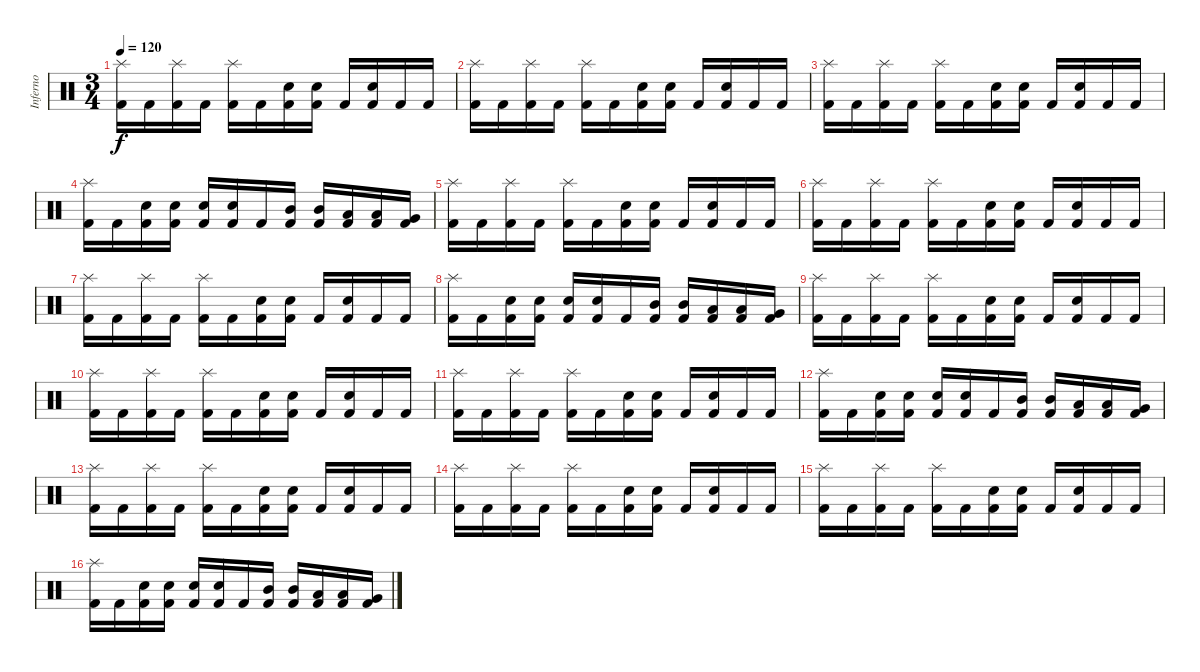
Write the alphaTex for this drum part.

\track ("Inferno" "Inferno") {instrument percussion}
\staff {score}
\articulation defaults
\ts (3 4)
\tempo 120
\clef neutral
\ks c
("Splash (hit)" "Kick (hit) 2").16{dy f} "Kick (hit) 2".16 ("Splash (hit)" "Kick (hit) 2").16 "Kick (hit) 2".16 ("Splash (hit)" "Kick (hit) 2").16 "Kick (hit) 2".16 ("Electric Snare (hit)" "Kick (hit) 2").16 ("Electric Snare (hit)" "Kick (hit) 2").16 "Kick (hit) 2".16 ("Electric Snare (hit)" "Kick (hit) 2").16 "Kick (hit) 2".16 "Kick (hit) 2".16 |
("Splash (hit)" "Kick (hit) 2").16 "Kick (hit) 2".16 ("Splash (hit)" "Kick (hit) 2").16 "Kick (hit) 2".16 ("Splash (hit)" "Kick (hit) 2").16 "Kick (hit) 2".16 ("Electric Snare (hit)" "Kick (hit) 2").16 ("Electric Snare (hit)" "Kick (hit) 2").16 "Kick (hit) 2".16 ("Electric Snare (hit)" "Kick (hit) 2").16 "Kick (hit) 2".16 "Kick (hit) 2".16 |
("Splash (hit)" "Kick (hit) 2").16 "Kick (hit) 2".16 ("Splash (hit)" "Kick (hit) 2").16 "Kick (hit) 2".16 ("Splash (hit)" "Kick (hit) 2").16 "Kick (hit) 2".16 ("Electric Snare (hit)" "Kick (hit) 2").16 ("Electric Snare (hit)" "Kick (hit) 2").16 "Kick (hit) 2".16 ("Electric Snare (hit)" "Kick (hit) 2").16 "Kick (hit) 2".16 "Kick (hit) 2".16 |
("Splash (hit)" "Kick (hit) 2").16 "Kick (hit) 2".16 ("Electric Snare (hit)" "Kick (hit) 2").16 ("Electric Snare (hit)" "Kick (hit) 2").16 ("Electric Snare (hit)" "Kick (hit) 2").16 ("Electric Snare (hit)" "Kick (hit) 2").16 "Kick (hit) 2".16 ("Mid Tom (hit)" "Kick (hit) 2").16 ("Mid Tom (hit)" "Kick (hit) 2").16 ("Low Tom (hit)" "Kick (hit) 2").16 ("Low Tom (hit)" "Kick (hit) 2").16 ("Very Low Tom (hit)" "Kick (hit) 2").16 |
("Splash (hit)" "Kick (hit) 2").16 "Kick (hit) 2".16 ("Splash (hit)" "Kick (hit) 2").16 "Kick (hit) 2".16 ("Splash (hit)" "Kick (hit) 2").16 "Kick (hit) 2".16 ("Electric Snare (hit)" "Kick (hit) 2").16 ("Electric Snare (hit)" "Kick (hit) 2").16 "Kick (hit) 2".16 ("Electric Snare (hit)" "Kick (hit) 2").16 "Kick (hit) 2".16 "Kick (hit) 2".16 |
("Splash (hit)" "Kick (hit) 2").16 "Kick (hit) 2".16 ("Splash (hit)" "Kick (hit) 2").16 "Kick (hit) 2".16 ("Splash (hit)" "Kick (hit) 2").16 "Kick (hit) 2".16 ("Electric Snare (hit)" "Kick (hit) 2").16 ("Electric Snare (hit)" "Kick (hit) 2").16 "Kick (hit) 2".16 ("Electric Snare (hit)" "Kick (hit) 2").16 "Kick (hit) 2".16 "Kick (hit) 2".16 |
("Splash (hit)" "Kick (hit) 2").16 "Kick (hit) 2".16 ("Splash (hit)" "Kick (hit) 2").16 "Kick (hit) 2".16 ("Splash (hit)" "Kick (hit) 2").16 "Kick (hit) 2".16 ("Electric Snare (hit)" "Kick (hit) 2").16 ("Electric Snare (hit)" "Kick (hit) 2").16 "Kick (hit) 2".16 ("Electric Snare (hit)" "Kick (hit) 2").16 "Kick (hit) 2".16 "Kick (hit) 2".16 |
("Splash (hit)" "Kick (hit) 2").16 "Kick (hit) 2".16 ("Electric Snare (hit)" "Kick (hit) 2").16 ("Electric Snare (hit)" "Kick (hit) 2").16 ("Electric Snare (hit)" "Kick (hit) 2").16 ("Electric Snare (hit)" "Kick (hit) 2").16 "Kick (hit) 2".16 ("Mid Tom (hit)" "Kick (hit) 2").16 ("Mid Tom (hit)" "Kick (hit) 2").16 ("Low Tom (hit)" "Kick (hit) 2").16 ("Low Tom (hit)" "Kick (hit) 2").16 ("Very Low Tom (hit)" "Kick (hit) 2").16 |
("Splash (hit)" "Kick (hit) 2").16 "Kick (hit) 2".16 ("Splash (hit)" "Kick (hit) 2").16 "Kick (hit) 2".16 ("Splash (hit)" "Kick (hit) 2").16 "Kick (hit) 2".16 ("Electric Snare (hit)" "Kick (hit) 2").16 ("Electric Snare (hit)" "Kick (hit) 2").16 "Kick (hit) 2".16 ("Electric Snare (hit)" "Kick (hit) 2").16 "Kick (hit) 2".16 "Kick (hit) 2".16 |
("Splash (hit)" "Kick (hit) 2").16 "Kick (hit) 2".16 ("Splash (hit)" "Kick (hit) 2").16 "Kick (hit) 2".16 ("Splash (hit)" "Kick (hit) 2").16 "Kick (hit) 2".16 ("Electric Snare (hit)" "Kick (hit) 2").16 ("Electric Snare (hit)" "Kick (hit) 2").16 "Kick (hit) 2".16 ("Electric Snare (hit)" "Kick (hit) 2").16 "Kick (hit) 2".16 "Kick (hit) 2".16 |
("Splash (hit)" "Kick (hit) 2").16 "Kick (hit) 2".16 ("Splash (hit)" "Kick (hit) 2").16 "Kick (hit) 2".16 ("Splash (hit)" "Kick (hit) 2").16 "Kick (hit) 2".16 ("Electric Snare (hit)" "Kick (hit) 2").16 ("Electric Snare (hit)" "Kick (hit) 2").16 "Kick (hit) 2".16 ("Electric Snare (hit)" "Kick (hit) 2").16 "Kick (hit) 2".16 "Kick (hit) 2".16 |
("Splash (hit)" "Kick (hit) 2").16 "Kick (hit) 2".16 ("Electric Snare (hit)" "Kick (hit) 2").16 ("Electric Snare (hit)" "Kick (hit) 2").16 ("Electric Snare (hit)" "Kick (hit) 2").16 ("Electric Snare (hit)" "Kick (hit) 2").16 "Kick (hit) 2".16 ("Mid Tom (hit)" "Kick (hit) 2").16 ("Mid Tom (hit)" "Kick (hit) 2").16 ("Low Tom (hit)" "Kick (hit) 2").16 ("Low Tom (hit)" "Kick (hit) 2").16 ("Very Low Tom (hit)" "Kick (hit) 2").16 |
("Splash (hit)" "Kick (hit) 2").16 "Kick (hit) 2".16 ("Splash (hit)" "Kick (hit) 2").16 "Kick (hit) 2".16 ("Splash (hit)" "Kick (hit) 2").16 "Kick (hit) 2".16 ("Electric Snare (hit)" "Kick (hit) 2").16 ("Electric Snare (hit)" "Kick (hit) 2").16 "Kick (hit) 2".16 ("Electric Snare (hit)" "Kick (hit) 2").16 "Kick (hit) 2".16 "Kick (hit) 2".16 |
("Splash (hit)" "Kick (hit) 2").16 "Kick (hit) 2".16 ("Splash (hit)" "Kick (hit) 2").16 "Kick (hit) 2".16 ("Splash (hit)" "Kick (hit) 2").16 "Kick (hit) 2".16 ("Electric Snare (hit)" "Kick (hit) 2").16 ("Electric Snare (hit)" "Kick (hit) 2").16 "Kick (hit) 2".16 ("Electric Snare (hit)" "Kick (hit) 2").16 "Kick (hit) 2".16 "Kick (hit) 2".16 |
("Splash (hit)" "Kick (hit) 2").16 "Kick (hit) 2".16 ("Splash (hit)" "Kick (hit) 2").16 "Kick (hit) 2".16 ("Splash (hit)" "Kick (hit) 2").16 "Kick (hit) 2".16 ("Electric Snare (hit)" "Kick (hit) 2").16 ("Electric Snare (hit)" "Kick (hit) 2").16 "Kick (hit) 2".16 ("Electric Snare (hit)" "Kick (hit) 2").16 "Kick (hit) 2".16 "Kick (hit) 2".16 |
("Splash (hit)" "Kick (hit) 2").16 "Kick (hit) 2".16 ("Electric Snare (hit)" "Kick (hit) 2").16 ("Electric Snare (hit)" "Kick (hit) 2").16 ("Electric Snare (hit)" "Kick (hit) 2").16 ("Electric Snare (hit)" "Kick (hit) 2").16 "Kick (hit) 2".16 ("Mid Tom (hit)" "Kick (hit) 2").16 ("Mid Tom (hit)" "Kick (hit) 2").16 ("Low Tom (hit)" "Kick (hit) 2").16 ("Low Tom (hit)" "Kick (hit) 2").16 ("Very Low Tom (hit)" "Kick (hit) 2").16
